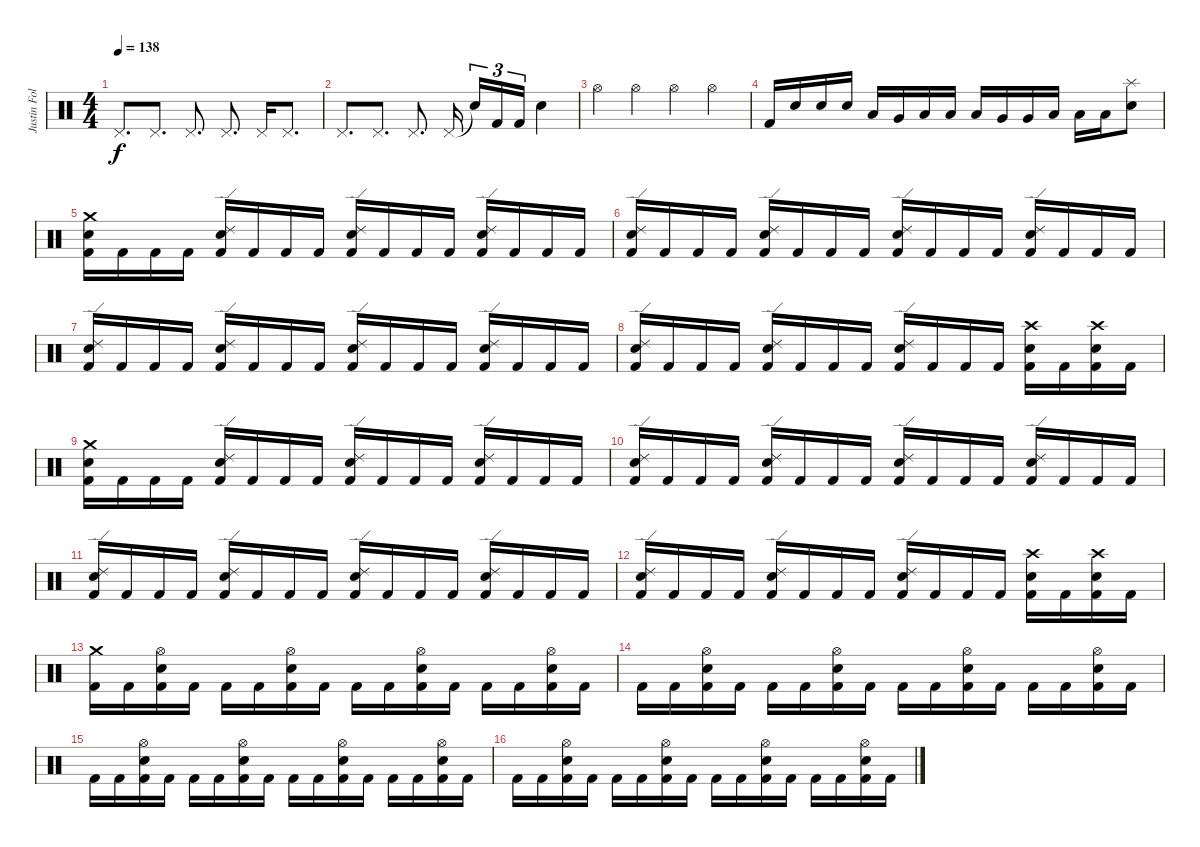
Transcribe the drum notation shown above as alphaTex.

\track ("Justin Foley" "Justin Fol") {instrument percussion}
\staff {score}
\articulation defaults
\ts (4 4)
\tempo 138
\clef neutral
\ks c "Pedal Hi-Hat (hit)".8{d dy f} "Pedal Hi-Hat (hit)".8{d} "Pedal Hi-Hat (hit)".8{d} "Pedal Hi-Hat (hit)".8{d} "Pedal Hi-Hat (hit)".16 "Pedal Hi-Hat (hit)".8{d}
|
"Pedal Hi-Hat (hit)".8{d} "Pedal Hi-Hat (hit)".8{d} "Pedal Hi-Hat (hit)".8{d} "Pedal Hi-Hat (hit)".16{beam splitsecondary} "Snare (hit)"{t}.16{tu (3 2)} "Kick (hit) 2".16{tu (3 2)} "Kick (hit) 2".16{tu (3 2)} "Electric Snare (hit)".4 |
"Hi-Hat (open)".4 "Hi-Hat (open)".4 "Hi-Hat (open)".4 "Hi-Hat (open)".4 |
"Kick (hit) 2".16 "Electric Snare (hit)".16 "Electric Snare (hit)".16 "Electric Snare (hit)".16 "Low Tom (hit)".16 "Very Low Tom (hit)".16 "Low Floor Tom (hit)".16 "Low Tom (hit)".16 "Low Tom (hit)".16 "Very Low Tom (hit)".16 "Very Low Tom (hit)".16 "Low Floor Tom (hit)".16 "Low Floor Tom (hit)".16 "Low Floor Tom (hit)".16 ("Splash (hit)" "Electric Snare (hit)").8 |
("Crash medium (hit)" "Electric Snare (hit)" "Kick (hit) 2").16 "Kick (hit) 2".16 "Kick (hit) 2".16 "Kick (hit) 2".16 ("Ride (edge) 2" "Electric Snare (hit)" "Kick (hit) 2").16 "Kick (hit) 2".16 "Kick (hit) 2".16 "Kick (hit) 2".16 ("Ride (edge) 2" "Electric Snare (hit)" "Kick (hit) 2").16 "Kick (hit) 2".16 "Kick (hit) 2".16 "Kick (hit) 2".16 ("Ride (edge) 2" "Electric Snare (hit)" "Kick (hit) 2").16 "Kick (hit) 2".16 "Kick (hit) 2".16 "Kick (hit) 2".16 |
("Ride (edge) 2" "Electric Snare (hit)" "Kick (hit) 2").16 "Kick (hit) 2".16 "Kick (hit) 2".16 "Kick (hit) 2".16 ("Ride (edge) 2" "Electric Snare (hit)" "Kick (hit) 2").16 "Kick (hit) 2".16 "Kick (hit) 2".16 "Kick (hit) 2".16 ("Ride (edge) 2" "Electric Snare (hit)" "Kick (hit) 2").16 "Kick (hit) 2".16 "Kick (hit) 2".16 "Kick (hit) 2".16 ("Ride (edge) 2" "Electric Snare (hit)" "Kick (hit) 2").16 "Kick (hit) 2".16 "Kick (hit) 2".16 "Kick (hit) 2".16 |
("Ride (edge) 2" "Electric Snare (hit)" "Kick (hit) 2").16 "Kick (hit) 2".16 "Kick (hit) 2".16 "Kick (hit) 2".16 ("Ride (edge) 2" "Electric Snare (hit)" "Kick (hit) 2").16 "Kick (hit) 2".16 "Kick (hit) 2".16 "Kick (hit) 2".16 ("Ride (edge) 2" "Electric Snare (hit)" "Kick (hit) 2").16 "Kick (hit) 2".16 "Kick (hit) 2".16 "Kick (hit) 2".16 ("Ride (edge) 2" "Electric Snare (hit)" "Kick (hit) 2").16 "Kick (hit) 2".16 "Kick (hit) 2".16 "Kick (hit) 2".16 |
("Ride (edge) 2" "Electric Snare (hit)" "Kick (hit) 2").16 "Kick (hit) 2".16 "Kick (hit) 2".16 "Kick (hit) 2".16 ("Ride (edge) 2" "Electric Snare (hit)" "Kick (hit) 2").16 "Kick (hit) 2".16 "Kick (hit) 2".16 "Kick (hit) 2".16 ("Ride (edge) 2" "Electric Snare (hit)" "Kick (hit) 2").16 "Kick (hit) 2".16 "Kick (hit) 2".16 "Kick (hit) 2".16 ("Crash high (hit)" "Electric Snare (hit)" "Kick (hit) 2").16 "Kick (hit) 2".16 ("Crash high (hit)" "Electric Snare (hit)" "Kick (hit) 2").16 "Kick (hit) 2".16 |
("Crash medium (hit)" "Electric Snare (hit)" "Kick (hit) 2").16 "Kick (hit) 2".16 "Kick (hit) 2".16 "Kick (hit) 2".16 ("Ride (edge) 2" "Electric Snare (hit)" "Kick (hit) 2").16 "Kick (hit) 2".16 "Kick (hit) 2".16 "Kick (hit) 2".16 ("Ride (edge) 2" "Electric Snare (hit)" "Kick (hit) 2").16 "Kick (hit) 2".16 "Kick (hit) 2".16 "Kick (hit) 2".16 ("Ride (edge) 2" "Electric Snare (hit)" "Kick (hit) 2").16 "Kick (hit) 2".16 "Kick (hit) 2".16 "Kick (hit) 2".16 |
("Ride (edge) 2" "Electric Snare (hit)" "Kick (hit) 2").16 "Kick (hit) 2".16 "Kick (hit) 2".16 "Kick (hit) 2".16 ("Ride (edge) 2" "Electric Snare (hit)" "Kick (hit) 2").16 "Kick (hit) 2".16 "Kick (hit) 2".16 "Kick (hit) 2".16 ("Ride (edge) 2" "Electric Snare (hit)" "Kick (hit) 2").16 "Kick (hit) 2".16 "Kick (hit) 2".16 "Kick (hit) 2".16 ("Ride (edge) 2" "Electric Snare (hit)" "Kick (hit) 2").16 "Kick (hit) 2".16 "Kick (hit) 2".16 "Kick (hit) 2".16 |
("Ride (edge) 2" "Electric Snare (hit)" "Kick (hit) 2").16 "Kick (hit) 2".16 "Kick (hit) 2".16 "Kick (hit) 2".16 ("Ride (edge) 2" "Electric Snare (hit)" "Kick (hit) 2").16 "Kick (hit) 2".16 "Kick (hit) 2".16 "Kick (hit) 2".16 ("Ride (edge) 2" "Electric Snare (hit)" "Kick (hit) 2").16 "Kick (hit) 2".16 "Kick (hit) 2".16 "Kick (hit) 2".16 ("Ride (edge) 2" "Electric Snare (hit)" "Kick (hit) 2").16 "Kick (hit) 2".16 "Kick (hit) 2".16 "Kick (hit) 2".16 |
("Ride (edge) 2" "Electric Snare (hit)" "Kick (hit) 2").16 "Kick (hit) 2".16 "Kick (hit) 2".16 "Kick (hit) 2".16 ("Ride (edge) 2" "Electric Snare (hit)" "Kick (hit) 2").16 "Kick (hit) 2".16 "Kick (hit) 2".16 "Kick (hit) 2".16 ("Ride (edge) 2" "Electric Snare (hit)" "Kick (hit) 2").16 "Kick (hit) 2".16 "Kick (hit) 2".16 "Kick (hit) 2".16 ("Crash high (hit)" "Electric Snare (hit)" "Kick (hit) 2").16 "Kick (hit) 2".16 ("Crash high (hit)" "Electric Snare (hit)" "Kick (hit) 2").16 "Kick (hit) 2".16 |
("Crash medium (hit)" "Kick (hit) 2").16 "Kick (hit) 2".16 ("Hi-Hat (open)" "Electric Snare (hit)" "Kick (hit) 2").16 "Kick (hit) 2".16 "Kick (hit) 2".16 "Kick (hit) 2".16 ("Hi-Hat (open)" "Electric Snare (hit)" "Kick (hit) 2").16 "Kick (hit) 2".16 "Kick (hit) 2".16 "Kick (hit) 2".16 ("Hi-Hat (open)" "Electric Snare (hit)" "Kick (hit) 2").16 "Kick (hit) 2".16 "Kick (hit) 2".16 "Kick (hit) 2".16 ("Hi-Hat (open)" "Electric Snare (hit)" "Kick (hit) 2").16 "Kick (hit) 2".16 |
"Kick (hit) 2".16 "Kick (hit) 2".16 ("Hi-Hat (open)" "Electric Snare (hit)" "Kick (hit) 2").16 "Kick (hit) 2".16 "Kick (hit) 2".16 "Kick (hit) 2".16 ("Hi-Hat (open)" "Electric Snare (hit)" "Kick (hit) 2").16 "Kick (hit) 2".16 "Kick (hit) 2".16 "Kick (hit) 2".16 ("Hi-Hat (open)" "Electric Snare (hit)" "Kick (hit) 2").16 "Kick (hit) 2".16 "Kick (hit) 2".16 "Kick (hit) 2".16 ("Hi-Hat (open)" "Electric Snare (hit)" "Kick (hit) 2").16 "Kick (hit) 2".16 |
"Kick (hit) 2".16 "Kick (hit) 2".16 ("Hi-Hat (open)" "Electric Snare (hit)" "Kick (hit) 2").16 "Kick (hit) 2".16 "Kick (hit) 2".16 "Kick (hit) 2".16 ("Hi-Hat (open)" "Electric Snare (hit)" "Kick (hit) 2").16 "Kick (hit) 2".16 "Kick (hit) 2".16 "Kick (hit) 2".16 ("Hi-Hat (open)" "Electric Snare (hit)" "Kick (hit) 2").16 "Kick (hit) 2".16 "Kick (hit) 2".16 "Kick (hit) 2".16 ("Hi-Hat (open)" "Electric Snare (hit)" "Kick (hit) 2").16 "Kick (hit) 2".16 |
"Kick (hit) 2".16 "Kick (hit) 2".16 ("Hi-Hat (open)" "Electric Snare (hit)" "Kick (hit) 2").16 "Kick (hit) 2".16 "Kick (hit) 2".16 "Kick (hit) 2".16 ("Hi-Hat (open)" "Electric Snare (hit)" "Kick (hit) 2").16 "Kick (hit) 2".16 "Kick (hit) 2".16 "Kick (hit) 2".16 ("Hi-Hat (open)" "Electric Snare (hit)" "Kick (hit) 2").16 "Kick (hit) 2".16 "Kick (hit) 2".16 "Kick (hit) 2".16 ("Hi-Hat (open)" "Electric Snare (hit)" "Kick (hit) 2").16 "Kick (hit) 2".16
